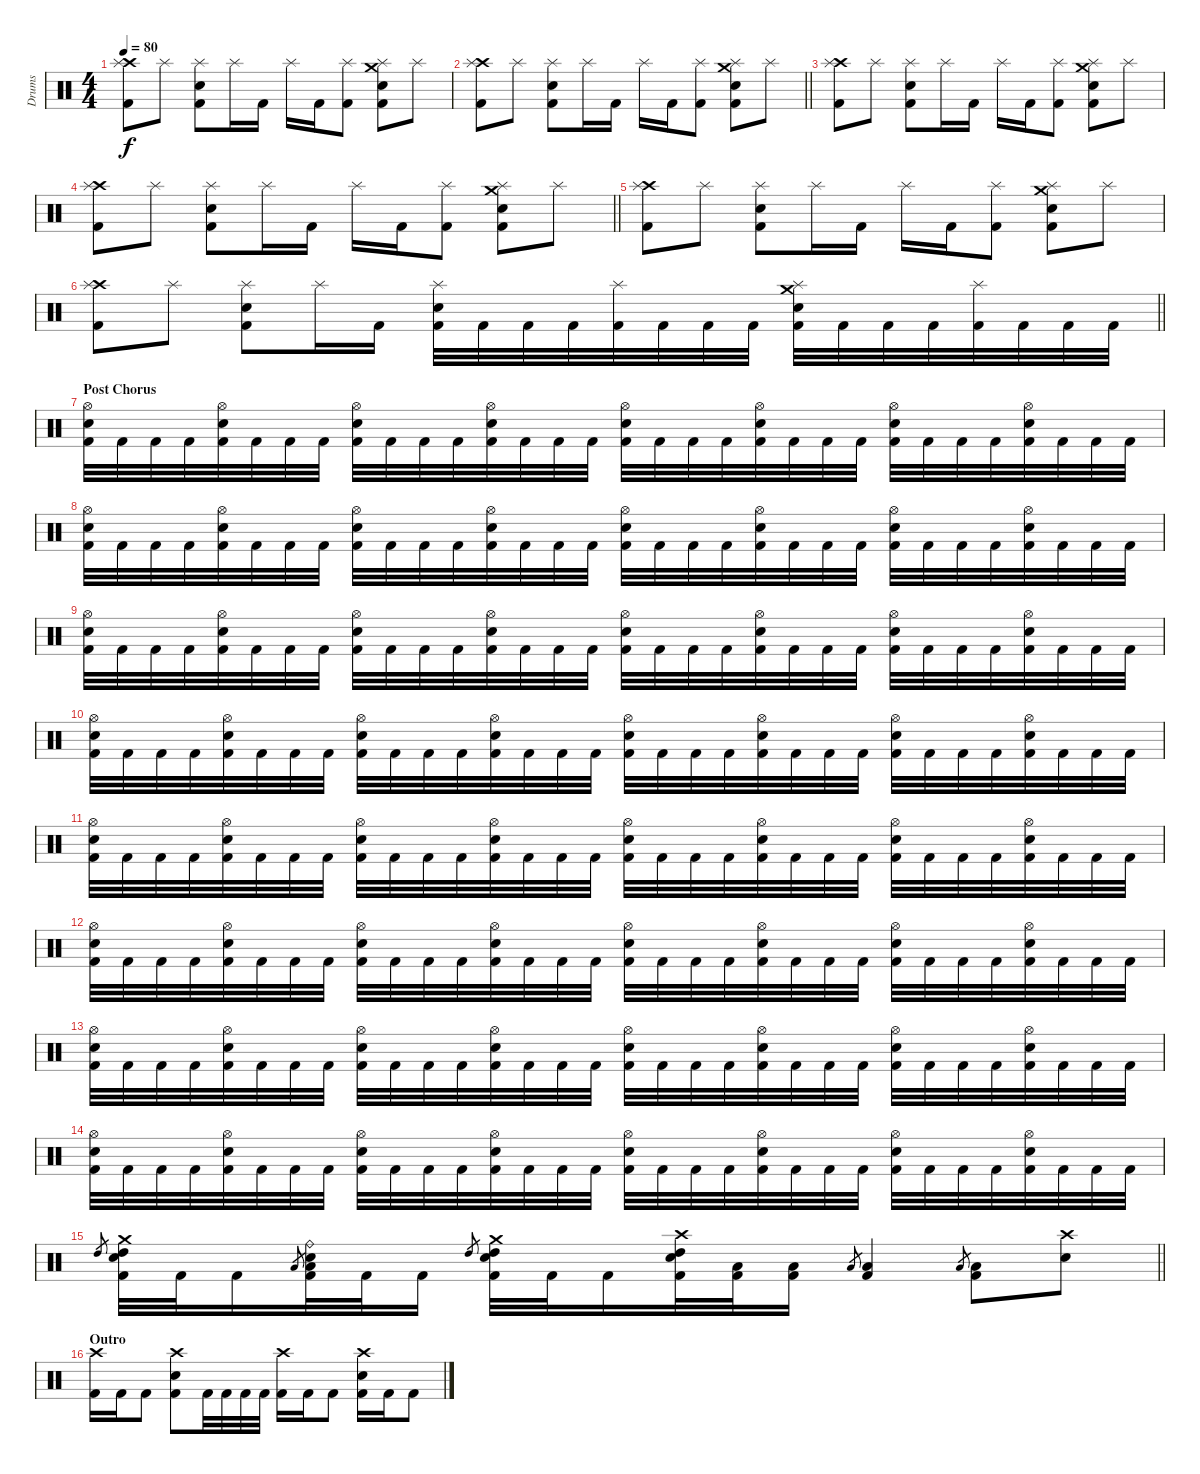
\track ("Drums" "Drums") {instrument percussion}
\staff {score}
\articulation defaults
\ts (4 4)
\tempo 80
\clef neutral
\ks c
("Crash high (hit)" "Splash (hit)" "Kick (hit) 2").8{dy f} "Splash (hit)".8 ("Splash (hit)" "Electric Snare (hit)" "Kick (hit) 2").8 "Splash (hit)".16 "Kick (hit) 2".16 "Splash (hit)".16 "Kick (hit) 2".16 ("Splash (hit)" "Kick (hit) 2").8 ("Crash medium (hit)" "Splash (hit)" "Electric Snare (hit)" "Kick (hit) 2").8 "Splash (hit)".8 |
\barLineRight lightlight
("Crash high (hit)" "Splash (hit)" "Kick (hit) 2").8 "Splash (hit)".8 ("Splash (hit)" "Electric Snare (hit)" "Kick (hit) 2").8 "Splash (hit)".16 "Kick (hit) 2".16 "Splash (hit)".16 "Kick (hit) 2".16 ("Splash (hit)" "Kick (hit) 2").8 ("Crash medium (hit)" "Splash (hit)" "Electric Snare (hit)" "Kick (hit) 2").8 "Splash (hit)".8 |
("Crash high (hit)" "Splash (hit)" "Kick (hit) 2").8 "Splash (hit)".8 ("Splash (hit)" "Electric Snare (hit)" "Kick (hit) 2").8 "Splash (hit)".16 "Kick (hit) 2".16 "Splash (hit)".16 "Kick (hit) 2".16 ("Splash (hit)" "Kick (hit) 2").8 ("Crash medium (hit)" "Splash (hit)" "Electric Snare (hit)" "Kick (hit) 2").8 "Splash (hit)".8 |
\barLineRight lightlight
("Crash high (hit)" "Splash (hit)" "Kick (hit) 2").8 "Splash (hit)".8 ("Splash (hit)" "Electric Snare (hit)" "Kick (hit) 2").8 "Splash (hit)".16 "Kick (hit) 2".16 "Splash (hit)".16 "Kick (hit) 2".16 ("Splash (hit)" "Kick (hit) 2").8 ("Crash medium (hit)" "Splash (hit)" "Electric Snare (hit)" "Kick (hit) 2").8 "Splash (hit)".8 |
("Crash high (hit)" "Splash (hit)" "Kick (hit) 2").8 "Splash (hit)".8 ("Splash (hit)" "Electric Snare (hit)" "Kick (hit) 2").8 "Splash (hit)".16 "Kick (hit) 2".16 "Splash (hit)".16 "Kick (hit) 2".16 ("Splash (hit)" "Kick (hit) 2").8 ("Crash medium (hit)" "Splash (hit)" "Electric Snare (hit)" "Kick (hit) 2").8 "Splash (hit)".8 |
\barLineRight lightlight
("Crash high (hit)" "Splash (hit)" "Kick (hit) 2").8 "Splash (hit)".8 ("Splash (hit)" "Electric Snare (hit)" "Kick (hit) 2").8 "Splash (hit)".16 "Kick (hit) 2".16 ("Splash (hit)" "Electric Snare (hit)" "Kick (hit) 2").32 "Kick (hit) 2".32 "Kick (hit) 2".32 "Kick (hit) 2".32 ("Splash (hit)" "Kick (hit) 2").32 "Kick (hit) 2".32 "Kick (hit) 2".32 "Kick (hit) 2".32 ("Crash medium (hit)" "Splash (hit)" "Electric Snare (hit)" "Kick (hit) 2").32 "Kick (hit) 2".32 "Kick (hit) 2".32 "Kick (hit) 2".32 ("Splash (hit)" "Kick (hit) 2").32 "Kick (hit) 2".32 "Kick (hit) 2".32 "Kick (hit) 2".32 |
\section ("" "Post Chorus")
("Hi-Hat (open)" "Electric Snare (hit)" "Kick (hit) 2").32 "Kick (hit) 2".32 "Kick (hit) 2".32 "Kick (hit) 2".32 ("Hi-Hat (open)" "Electric Snare (hit)" "Kick (hit) 2").32 "Kick (hit) 2".32 "Kick (hit) 2".32 "Kick (hit) 2".32 ("Hi-Hat (open)" "Electric Snare (hit)" "Kick (hit) 2").32 "Kick (hit) 2".32 "Kick (hit) 2".32 "Kick (hit) 2".32 ("Hi-Hat (open)" "Electric Snare (hit)" "Kick (hit) 2").32 "Kick (hit) 2".32 "Kick (hit) 2".32 "Kick (hit) 2".32 ("Hi-Hat (open)" "Electric Snare (hit)" "Kick (hit) 2").32 "Kick (hit) 2".32 "Kick (hit) 2".32 "Kick (hit) 2".32 ("Hi-Hat (open)" "Electric Snare (hit)" "Kick (hit) 2").32 "Kick (hit) 2".32 "Kick (hit) 2".32 "Kick (hit) 2".32 ("Hi-Hat (open)" "Electric Snare (hit)" "Kick (hit) 2").32 "Kick (hit) 2".32 "Kick (hit) 2".32 "Kick (hit) 2".32 ("Hi-Hat (open)" "Electric Snare (hit)" "Kick (hit) 2").32 "Kick (hit) 2".32 "Kick (hit) 2".32 "Kick (hit) 2".32 |
("Hi-Hat (open)" "Electric Snare (hit)" "Kick (hit) 2").32 "Kick (hit) 2".32 "Kick (hit) 2".32 "Kick (hit) 2".32 ("Hi-Hat (open)" "Electric Snare (hit)" "Kick (hit) 2").32 "Kick (hit) 2".32 "Kick (hit) 2".32 "Kick (hit) 2".32 ("Hi-Hat (open)" "Electric Snare (hit)" "Kick (hit) 2").32 "Kick (hit) 2".32 "Kick (hit) 2".32 "Kick (hit) 2".32 ("Hi-Hat (open)" "Electric Snare (hit)" "Kick (hit) 2").32 "Kick (hit) 2".32 "Kick (hit) 2".32 "Kick (hit) 2".32 ("Hi-Hat (open)" "Electric Snare (hit)" "Kick (hit) 2").32 "Kick (hit) 2".32 "Kick (hit) 2".32 "Kick (hit) 2".32 ("Hi-Hat (open)" "Electric Snare (hit)" "Kick (hit) 2").32 "Kick (hit) 2".32 "Kick (hit) 2".32 "Kick (hit) 2".32 ("Hi-Hat (open)" "Electric Snare (hit)" "Kick (hit) 2").32 "Kick (hit) 2".32 "Kick (hit) 2".32 "Kick (hit) 2".32 ("Hi-Hat (open)" "Electric Snare (hit)" "Kick (hit) 2").32 "Kick (hit) 2".32 "Kick (hit) 2".32 "Kick (hit) 2".32 |
("Hi-Hat (open)" "Electric Snare (hit)" "Kick (hit) 2").32 "Kick (hit) 2".32 "Kick (hit) 2".32 "Kick (hit) 2".32 ("Hi-Hat (open)" "Electric Snare (hit)" "Kick (hit) 2").32 "Kick (hit) 2".32 "Kick (hit) 2".32 "Kick (hit) 2".32 ("Hi-Hat (open)" "Electric Snare (hit)" "Kick (hit) 2").32 "Kick (hit) 2".32 "Kick (hit) 2".32 "Kick (hit) 2".32 ("Hi-Hat (open)" "Electric Snare (hit)" "Kick (hit) 2").32 "Kick (hit) 2".32 "Kick (hit) 2".32 "Kick (hit) 2".32 ("Hi-Hat (open)" "Electric Snare (hit)" "Kick (hit) 2").32 "Kick (hit) 2".32 "Kick (hit) 2".32 "Kick (hit) 2".32 ("Hi-Hat (open)" "Electric Snare (hit)" "Kick (hit) 2").32 "Kick (hit) 2".32 "Kick (hit) 2".32 "Kick (hit) 2".32 ("Hi-Hat (open)" "Electric Snare (hit)" "Kick (hit) 2").32 "Kick (hit) 2".32 "Kick (hit) 2".32 "Kick (hit) 2".32 ("Hi-Hat (open)" "Electric Snare (hit)" "Kick (hit) 2").32 "Kick (hit) 2".32 "Kick (hit) 2".32 "Kick (hit) 2".32 |
("Hi-Hat (open)" "Electric Snare (hit)" "Kick (hit) 2").32 "Kick (hit) 2".32 "Kick (hit) 2".32 "Kick (hit) 2".32 ("Hi-Hat (open)" "Electric Snare (hit)" "Kick (hit) 2").32 "Kick (hit) 2".32 "Kick (hit) 2".32 "Kick (hit) 2".32 ("Hi-Hat (open)" "Electric Snare (hit)" "Kick (hit) 2").32 "Kick (hit) 2".32 "Kick (hit) 2".32 "Kick (hit) 2".32 ("Hi-Hat (open)" "Electric Snare (hit)" "Kick (hit) 2").32 "Kick (hit) 2".32 "Kick (hit) 2".32 "Kick (hit) 2".32 ("Hi-Hat (open)" "Electric Snare (hit)" "Kick (hit) 2").32 "Kick (hit) 2".32 "Kick (hit) 2".32 "Kick (hit) 2".32 ("Hi-Hat (open)" "Electric Snare (hit)" "Kick (hit) 2").32 "Kick (hit) 2".32 "Kick (hit) 2".32 "Kick (hit) 2".32 ("Hi-Hat (open)" "Electric Snare (hit)" "Kick (hit) 2").32 "Kick (hit) 2".32 "Kick (hit) 2".32 "Kick (hit) 2".32 ("Hi-Hat (open)" "Electric Snare (hit)" "Kick (hit) 2").32 "Kick (hit) 2".32 "Kick (hit) 2".32 "Kick (hit) 2".32 |
("Hi-Hat (open)" "Electric Snare (hit)" "Kick (hit) 2").32 "Kick (hit) 2".32 "Kick (hit) 2".32 "Kick (hit) 2".32 ("Hi-Hat (open)" "Electric Snare (hit)" "Kick (hit) 2").32 "Kick (hit) 2".32 "Kick (hit) 2".32 "Kick (hit) 2".32 ("Hi-Hat (open)" "Electric Snare (hit)" "Kick (hit) 2").32 "Kick (hit) 2".32 "Kick (hit) 2".32 "Kick (hit) 2".32 ("Hi-Hat (open)" "Electric Snare (hit)" "Kick (hit) 2").32 "Kick (hit) 2".32 "Kick (hit) 2".32 "Kick (hit) 2".32 ("Hi-Hat (open)" "Electric Snare (hit)" "Kick (hit) 2").32 "Kick (hit) 2".32 "Kick (hit) 2".32 "Kick (hit) 2".32 ("Hi-Hat (open)" "Electric Snare (hit)" "Kick (hit) 2").32 "Kick (hit) 2".32 "Kick (hit) 2".32 "Kick (hit) 2".32 ("Hi-Hat (open)" "Electric Snare (hit)" "Kick (hit) 2").32 "Kick (hit) 2".32 "Kick (hit) 2".32 "Kick (hit) 2".32 ("Hi-Hat (open)" "Electric Snare (hit)" "Kick (hit) 2").32 "Kick (hit) 2".32 "Kick (hit) 2".32 "Kick (hit) 2".32 |
("Hi-Hat (open)" "Electric Snare (hit)" "Kick (hit) 2").32 "Kick (hit) 2".32 "Kick (hit) 2".32 "Kick (hit) 2".32 ("Hi-Hat (open)" "Electric Snare (hit)" "Kick (hit) 2").32 "Kick (hit) 2".32 "Kick (hit) 2".32 "Kick (hit) 2".32 ("Hi-Hat (open)" "Electric Snare (hit)" "Kick (hit) 2").32 "Kick (hit) 2".32 "Kick (hit) 2".32 "Kick (hit) 2".32 ("Hi-Hat (open)" "Electric Snare (hit)" "Kick (hit) 2").32 "Kick (hit) 2".32 "Kick (hit) 2".32 "Kick (hit) 2".32 ("Hi-Hat (open)" "Electric Snare (hit)" "Kick (hit) 2").32 "Kick (hit) 2".32 "Kick (hit) 2".32 "Kick (hit) 2".32 ("Hi-Hat (open)" "Electric Snare (hit)" "Kick (hit) 2").32 "Kick (hit) 2".32 "Kick (hit) 2".32 "Kick (hit) 2".32 ("Hi-Hat (open)" "Electric Snare (hit)" "Kick (hit) 2").32 "Kick (hit) 2".32 "Kick (hit) 2".32 "Kick (hit) 2".32 ("Hi-Hat (open)" "Electric Snare (hit)" "Kick (hit) 2").32 "Kick (hit) 2".32 "Kick (hit) 2".32 "Kick (hit) 2".32 |
("Hi-Hat (open)" "Electric Snare (hit)" "Kick (hit) 2").32 "Kick (hit) 2".32 "Kick (hit) 2".32 "Kick (hit) 2".32 ("Hi-Hat (open)" "Electric Snare (hit)" "Kick (hit) 2").32 "Kick (hit) 2".32 "Kick (hit) 2".32 "Kick (hit) 2".32 ("Hi-Hat (open)" "Electric Snare (hit)" "Kick (hit) 2").32 "Kick (hit) 2".32 "Kick (hit) 2".32 "Kick (hit) 2".32 ("Hi-Hat (open)" "Electric Snare (hit)" "Kick (hit) 2").32 "Kick (hit) 2".32 "Kick (hit) 2".32 "Kick (hit) 2".32 ("Hi-Hat (open)" "Electric Snare (hit)" "Kick (hit) 2").32 "Kick (hit) 2".32 "Kick (hit) 2".32 "Kick (hit) 2".32 ("Hi-Hat (open)" "Electric Snare (hit)" "Kick (hit) 2").32 "Kick (hit) 2".32 "Kick (hit) 2".32 "Kick (hit) 2".32 ("Hi-Hat (open)" "Electric Snare (hit)" "Kick (hit) 2").32 "Kick (hit) 2".32 "Kick (hit) 2".32 "Kick (hit) 2".32 ("Hi-Hat (open)" "Electric Snare (hit)" "Kick (hit) 2").32 "Kick (hit) 2".32 "Kick (hit) 2".32 "Kick (hit) 2".32 |
("Hi-Hat (open)" "Electric Snare (hit)" "Kick (hit) 2").32 "Kick (hit) 2".32 "Kick (hit) 2".32 "Kick (hit) 2".32 ("Hi-Hat (open)" "Electric Snare (hit)" "Kick (hit) 2").32 "Kick (hit) 2".32 "Kick (hit) 2".32 "Kick (hit) 2".32 ("Hi-Hat (open)" "Electric Snare (hit)" "Kick (hit) 2").32 "Kick (hit) 2".32 "Kick (hit) 2".32 "Kick (hit) 2".32 ("Hi-Hat (open)" "Electric Snare (hit)" "Kick (hit) 2").32 "Kick (hit) 2".32 "Kick (hit) 2".32 "Kick (hit) 2".32 ("Hi-Hat (open)" "Electric Snare (hit)" "Kick (hit) 2").32 "Kick (hit) 2".32 "Kick (hit) 2".32 "Kick (hit) 2".32 ("Hi-Hat (open)" "Electric Snare (hit)" "Kick (hit) 2").32 "Kick (hit) 2".32 "Kick (hit) 2".32 "Kick (hit) 2".32 ("Hi-Hat (open)" "Electric Snare (hit)" "Kick (hit) 2").32 "Kick (hit) 2".32 "Kick (hit) 2".32 "Kick (hit) 2".32 ("Hi-Hat (open)" "Electric Snare (hit)" "Kick (hit) 2").32 "Kick (hit) 2".32 "Kick (hit) 2".32 "Kick (hit) 2".32 |
\barLineRight lightlight "High Tom (hit)".8{gr}
("Crash medium (hit)" "High Tom (hit)" "Electric Snare (hit)" "Kick (hit) 2").32 "Kick (hit) 2".32 "Kick (hit) 2".16 "Low Tom (hit)".8{gr} ("Ride (bell)" "Low Tom (hit)" "Electric Snare (hit)" "Kick (hit) 2").32 "Kick (hit) 2".32 "Kick (hit) 2".16 "High Tom (hit)".8{gr} ("Crash medium (hit)" "High Tom (hit)" "Electric Snare (hit)" "Kick (hit) 2").32 "Kick (hit) 2".32 "Kick (hit) 2".16 ("Crash high (hit)" "High Tom (hit)" "Electric Snare (hit)" "Kick (hit) 2").32 ("Low Tom (hit)" "Kick (hit) 2").32 ("Low Tom (hit)" "Kick (hit) 2").16 "Low Tom (hit)".8{gr} ("Low Tom (hit)" "Kick (hit) 2").4 "Low Tom (hit)".8{gr} ("Low Tom (hit)" "Kick (hit) 2").8 ("Crash high (hit)" "Electric Snare (hit)").8 |
\section ("" "Outro")
("Crash high (hit)" "Kick (hit) 2").16 "Kick (hit) 2".16 "Kick (hit) 2".8 ("Crash high (hit)" "Electric Snare (hit)" "Kick (hit) 2").8 "Kick (hit) 2".32 "Kick (hit) 2".32 "Kick (hit) 2".32 "Kick (hit) 2".32 ("Crash high (hit)" "Kick (hit) 2").16 "Kick (hit) 2".16 "Kick (hit) 2".8 ("Crash high (hit)" "Electric Snare (hit)" "Kick (hit) 2").16 "Kick (hit) 2".16 "Kick (hit) 2".8
